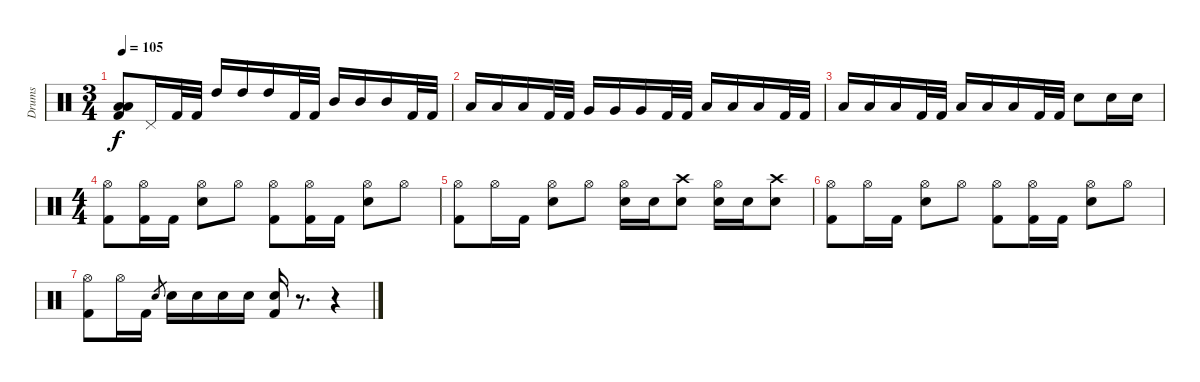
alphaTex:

\track ("Drums" "Drums") {instrument percussion}
\staff {score}
\articulation defaults
\ts (3 4)
\tempo 105
\clef neutral
\ks c
("Low Floor Tom (hit)" "Low Floor Tom (hit)" "Kick (hit) 2").8{dy f} "Pedal Hi-Hat (hit)".16 "Kick (hit) 2".32 "Kick (hit) 2".32 "High Tom (hit)".16 "High Tom (hit)".16 "High Tom (hit)".16 "Kick (hit) 2".32 "Kick (hit) 2".32 "Mid Tom (hit)".16 "Mid Tom (hit)".16 "Mid Tom (hit)".16 "Kick (hit) 2".32 "Kick (hit) 2".32 |
"Low Tom (hit)".16 "Low Tom (hit)".16 "Low Tom (hit)".16 "Kick (hit) 2".32 "Kick (hit) 2".32 "Very Low Tom (hit)".16 "Very Low Tom (hit)".16 "Very Low Tom (hit)".16 "Kick (hit) 2".32 "Kick (hit) 2".32 "Low Floor Tom (hit)".16 "Low Floor Tom (hit)".16 "Low Floor Tom (hit)".16 "Kick (hit) 2".32 "Kick (hit) 2".32 |
"Low Floor Tom (hit)".16 "Low Floor Tom (hit)".16 "Low Floor Tom (hit)".16 "Kick (hit) 2".32 "Kick (hit) 2".32 "Low Floor Tom (hit)".16 "Low Floor Tom (hit)".16 "Low Floor Tom (hit)".16 "Kick (hit) 2".32 "Kick (hit) 2".32 "Snare (hit) 2".8 "Snare (hit) 2".16 "Snare (hit) 2".16 |
\ts (4 4)
("Hi-Hat (open)" "Kick (hit) 2").8 ("Hi-Hat (open)" "Kick (hit) 2").16 "Kick (hit) 2".16 ("Hi-Hat (open)" "Snare (hit) 2").8 "Hi-Hat (open)".8 ("Hi-Hat (open)" "Kick (hit) 2").8 ("Hi-Hat (open)" "Kick (hit) 2").16 "Kick (hit) 2".16 ("Hi-Hat (open)" "Snare (hit) 2").8 "Hi-Hat (open)".8 |
("Hi-Hat (open)" "Kick (hit) 2").8 "Hi-Hat (open)".16 "Kick (hit) 2".16 ("Hi-Hat (open)" "Snare (hit) 2").8 "Hi-Hat (open)".8 ("Hi-Hat (open)" "Snare (hit) 2").16 "Snare (hit) 2".16 ("Crash high (hit)" "Snare (hit) 2").8 ("Hi-Hat (open)" "Snare (hit) 2").16 "Snare (hit) 2".16 ("Crash high (hit)" "Snare (hit) 2").8 |
("Hi-Hat (open)" "Kick (hit) 2").8 "Hi-Hat (open)".16 "Kick (hit) 2".16 ("Hi-Hat (open)" "Snare (hit) 2").8 "Hi-Hat (open)".8 ("Hi-Hat (open)" "Kick (hit) 2").8 ("Hi-Hat (open)" "Kick (hit) 2").16 "Kick (hit) 2".16 ("Hi-Hat (open)" "Snare (hit) 2").8 "Hi-Hat (open)".8 |
("Hi-Hat (open)" "Kick (hit) 2").8 "Hi-Hat (open)".16 "Kick (hit) 2".16 "Snare (hit) 2".8{gr} "Snare (hit) 2".16 "Snare (hit) 2".16 "Snare (hit) 2".16 "Snare (hit) 2".16 ("Snare (hit) 2" "Kick (hit) 2").16 r.8{d} r.4
